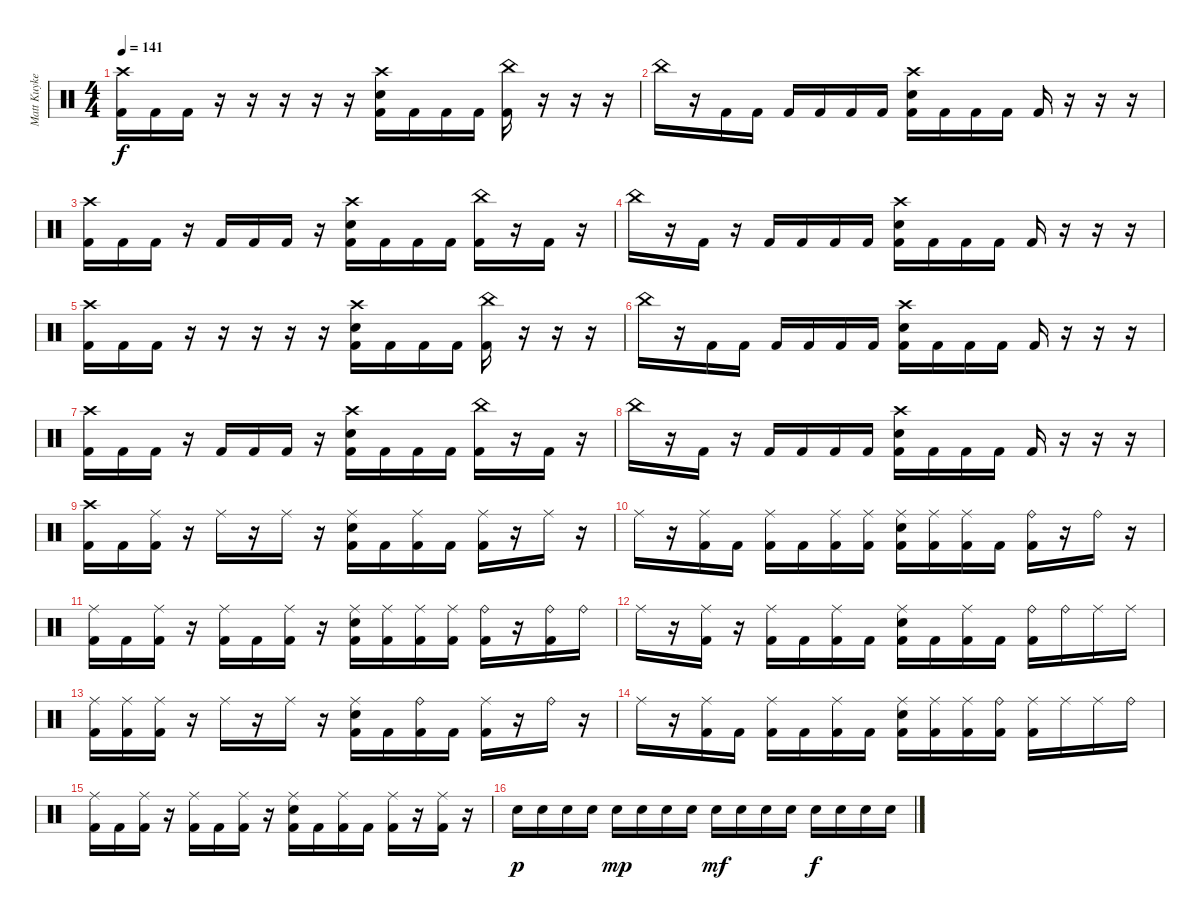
\track ("Matt Kuykendall" "Matt Kuyke") {instrument percussion}
\staff {score}
\articulation defaults
\ts (4 4)
\tempo 141
\clef neutral
\ks c
("Crash high (hit)" "Kick (hit) 2").16{dy f} "Kick (hit) 2".16 "Kick (hit) 2".16 r.16 r.16 r.16 r.16 r.16 ("Crash high (hit)" "Electric Snare (hit)" "Kick (hit) 2").16 "Kick (hit) 2".16 "Kick (hit) 2".16 "Kick (hit) 2".16 ("China (hit)" "Kick (hit) 2").16 r.16 r.16 r.16 |
"China (hit)".16 r.16 "Kick (hit) 2".16 "Kick (hit) 2".16 "Kick (hit) 2".16 "Kick (hit) 2".16 "Kick (hit) 2".16 "Kick (hit) 2".16 ("Crash high (hit)" "Electric Snare (hit)" "Kick (hit) 2").16 "Kick (hit) 2".16 "Kick (hit) 2".16 "Kick (hit) 2".16 "Kick (hit) 2".16 r.16 r.16 r.16 |
("Crash high (hit)" "Kick (hit) 2").16 "Kick (hit) 2".16 "Kick (hit) 2".16 r.16 "Kick (hit) 2".16 "Kick (hit) 2".16 "Kick (hit) 2".16 r.16 ("Crash high (hit)" "Electric Snare (hit)" "Kick (hit) 2").16 "Kick (hit) 2".16 "Kick (hit) 2".16 "Kick (hit) 2".16 ("China (hit)" "Kick (hit) 2").16 r.16 "Kick (hit) 2".16 r.16 |
"China (hit)".16 r.16 "Kick (hit) 2".16 r.16 "Kick (hit) 2".16 "Kick (hit) 2".16 "Kick (hit) 2".16 "Kick (hit) 2".16 ("Crash high (hit)" "Electric Snare (hit)" "Kick (hit) 2").16 "Kick (hit) 2".16 "Kick (hit) 2".16 "Kick (hit) 2".16 "Kick (hit) 2".16 r.16 r.16 r.16 |
("Crash high (hit)" "Kick (hit) 2").16 "Kick (hit) 2".16 "Kick (hit) 2".16 r.16 r.16 r.16 r.16 r.16 ("Crash high (hit)" "Electric Snare (hit)" "Kick (hit) 2").16 "Kick (hit) 2".16 "Kick (hit) 2".16 "Kick (hit) 2".16 ("China (hit)" "Kick (hit) 2").16 r.16 r.16 r.16 |
"China (hit)".16 r.16 "Kick (hit) 2".16 "Kick (hit) 2".16 "Kick (hit) 2".16 "Kick (hit) 2".16 "Kick (hit) 2".16 "Kick (hit) 2".16 ("Crash high (hit)" "Electric Snare (hit)" "Kick (hit) 2").16 "Kick (hit) 2".16 "Kick (hit) 2".16 "Kick (hit) 2".16 "Kick (hit) 2".16 r.16 r.16 r.16 |
("Crash high (hit)" "Kick (hit) 2").16 "Kick (hit) 2".16 "Kick (hit) 2".16 r.16 "Kick (hit) 2".16 "Kick (hit) 2".16 "Kick (hit) 2".16 r.16 ("Crash high (hit)" "Electric Snare (hit)" "Kick (hit) 2").16 "Kick (hit) 2".16 "Kick (hit) 2".16 "Kick (hit) 2".16 ("China (hit)" "Kick (hit) 2").16 r.16 "Kick (hit) 2".16 r.16 |
"China (hit)".16 r.16 "Kick (hit) 2".16 r.16 "Kick (hit) 2".16 "Kick (hit) 2".16 "Kick (hit) 2".16 "Kick (hit) 2".16 ("Crash high (hit)" "Electric Snare (hit)" "Kick (hit) 2").16 "Kick (hit) 2".16 "Kick (hit) 2".16 "Kick (hit) 2".16 "Kick (hit) 2".16 r.16 r.16 r.16 |
("Crash high (hit)" "Kick (hit) 2").16 "Kick (hit) 2".16 ("Ride (middle)" "Kick (hit) 2").16 r.16 "Ride (middle)".16 r.16 "Ride (middle)".16 r.16 ("Ride (middle)" "Electric Snare (hit)" "Kick (hit) 2").16 "Kick (hit) 2".16 ("Ride (middle)" "Kick (hit) 2").16 "Kick (hit) 2".16 ("Ride (middle)" "Kick (hit) 2").16 r.16 "Ride (middle)".16 r.16 |
"Ride (middle)".16 r.16 ("Ride (middle)" "Kick (hit) 2").16 "Kick (hit) 2".16 ("Ride (middle)" "Kick (hit) 2").16 "Kick (hit) 2".16 ("Ride (middle)" "Kick (hit) 2").16 ("Ride (middle)" "Kick (hit) 2").16 ("Ride (middle)" "Electric Snare (hit)" "Kick (hit) 2").16 ("Ride (middle)" "Kick (hit) 2").16 ("Ride (middle)" "Kick (hit) 2").16 "Kick (hit) 2".16 ("Ride (bell)" "Kick (hit) 2").16 r.16 "Ride (bell)".16 r.16 |
("Ride (middle)" "Kick (hit) 2").16 "Kick (hit) 2".16 ("Ride (middle)" "Kick (hit) 2").16 r.16 ("Ride (middle)" "Kick (hit) 2").16 "Kick (hit) 2".16 ("Ride (middle)" "Kick (hit) 2").16 r.16 ("Ride (middle)" "Electric Snare (hit)" "Kick (hit) 2").16 ("Ride (middle)" "Kick (hit) 2").16 ("Ride (middle)" "Kick (hit) 2").16 ("Ride (middle)" "Kick (hit) 2").16 ("Ride (bell)" "Kick (hit) 2").16 r.16 ("Ride (bell)" "Kick (hit) 2").16 "Ride (bell)".16 |
"Ride (middle)".16 r.16 ("Ride (middle)" "Kick (hit) 2").16 r.16 ("Ride (middle)" "Kick (hit) 2").16 "Kick (hit) 2".16 ("Ride (middle)" "Kick (hit) 2").16 "Kick (hit) 2".16 ("Ride (middle)" "Electric Snare (hit)" "Kick (hit) 2").16 "Kick (hit) 2".16 ("Ride (middle)" "Kick (hit) 2").16 "Kick (hit) 2".16 ("Ride (bell)" "Kick (hit) 2").16 "Ride (bell)".16 "Ride (middle)".16 "Ride (middle)".16 |
("Ride (middle)" "Kick (hit) 2").16 ("Ride (middle)" "Kick (hit) 2").16 ("Ride (middle)" "Kick (hit) 2").16 r.16 "Ride (middle)".16 r.16 "Ride (middle)".16 r.16 ("Ride (middle)" "Electric Snare (hit)" "Kick (hit) 2").16 "Kick (hit) 2".16 ("Ride (bell)" "Kick (hit) 2").16 "Kick (hit) 2".16 ("Ride (middle)" "Kick (hit) 2").16 r.16 "Ride (bell)".16 r.16 |
"Ride (middle)".16 r.16 ("Ride (middle)" "Kick (hit) 2").16 "Kick (hit) 2".16 ("Ride (middle)" "Kick (hit) 2").16 "Kick (hit) 2".16 ("Ride (middle)" "Kick (hit) 2").16 "Kick (hit) 2".16 ("Ride (middle)" "Electric Snare (hit)" "Kick (hit) 2").16 ("Ride (middle)" "Kick (hit) 2").16 ("Ride (middle)" "Kick (hit) 2").16 ("Ride (bell)" "Kick (hit) 2").16 ("Ride (middle)" "Kick (hit) 2").16 "Ride (middle)".16 "Ride (middle)".16 "Ride (bell)".16 |
("Ride (middle)" "Kick (hit) 2").16 "Kick (hit) 2".16 ("Ride (middle)" "Kick (hit) 2").16 r.16 ("Ride (middle)" "Kick (hit) 2").16 "Kick (hit) 2".16 ("Ride (middle)" "Kick (hit) 2").16 r.16 ("Ride (middle)" "Electric Snare (hit)" "Kick (hit) 2").16 "Kick (hit) 2".16 ("Ride (middle)" "Kick (hit) 2").16 "Kick (hit) 2".16 ("Ride (middle)" "Kick (hit) 2").16 r.16 ("Ride (middle)" "Kick (hit) 2").16 r.16 |
"Snare (hit) 2".16{dy p} "Snare (hit) 2".16 "Snare (hit) 2".16 "Snare (hit) 2".16 "Snare (hit) 2".16{dy mp} "Snare (hit) 2".16 "Snare (hit) 2".16 "Snare (hit) 2".16 "Snare (hit) 2".16{dy mf} "Snare (hit) 2".16 "Snare (hit) 2".16 "Snare (hit) 2".16 "Snare (hit) 2".16{dy f} "Snare (hit) 2".16 "Snare (hit) 2".16 "Snare (hit) 2".16
